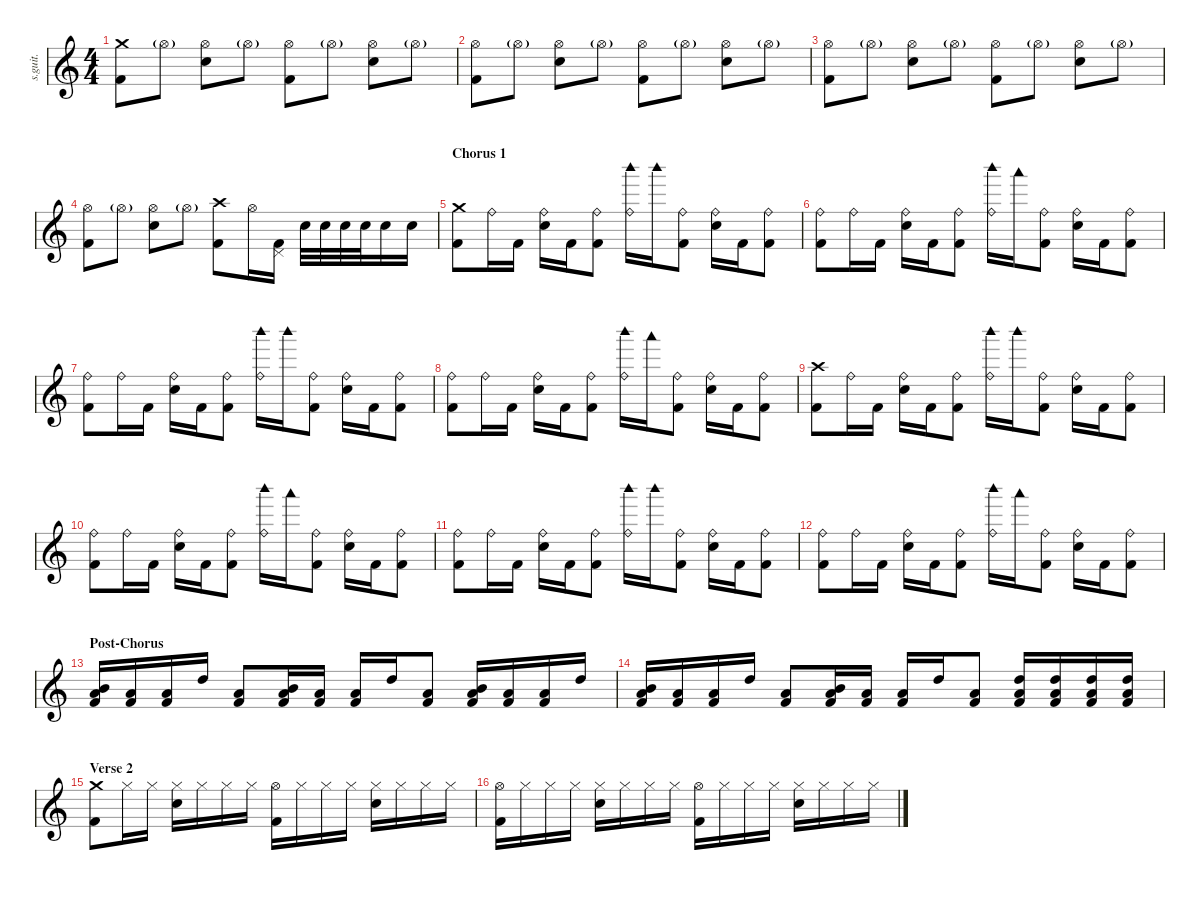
\defaultSystemsLayout 4
\hideDynamics
\bracketExtendMode nobrackets
\track ("Mike Wengren" "s.guit.") {instrument percussion}
\staff {score}
\articulation defaults
\ts (4 4)
\tempo (90 hide)
\clef g2
\ks c
("Kick (hit) 2" "Crash medium (hit)").8{lyrics (0 "") lyrics (1 "") lyrics (2 "") lyrics (3 "") lyrics (4 "") dy ff} "Hi-Hat (open)"{g}.8{lyrics (0 "") lyrics (1 "") lyrics (2 "") lyrics (3 "") lyrics (4 "")} ("Hi-Hat (open)" "Snare (hit) 2").8{lyrics (0 "") lyrics (1 "") lyrics (2 "") lyrics (3 "") lyrics (4 "")} "Hi-Hat (open)"{g}.8{lyrics (0 "") lyrics (1 "") lyrics (2 "") lyrics (3 "") lyrics (4 "")} ("Hi-Hat (open)" "Kick (hit) 2").8{lyrics (0 "") lyrics (1 "") lyrics (2 "") lyrics (3 "") lyrics (4 "")} "Hi-Hat (open)"{g}.8{lyrics (0 "") lyrics (1 "") lyrics (2 "") lyrics (3 "") lyrics (4 "")} ("Hi-Hat (open)" "Snare (hit) 2").8{lyrics (0 "") lyrics (1 "") lyrics (2 "") lyrics (3 "") lyrics (4 "")} "Hi-Hat (open)"{g}.8{lyrics (0 "") lyrics (1 "") lyrics (2 "") lyrics (3 "") lyrics (4 "")} |
("Hi-Hat (open)" "Kick (hit) 2").8{lyrics (0 "") lyrics (1 "") lyrics (2 "") lyrics (3 "") lyrics (4 "")} "Hi-Hat (open)"{g}.8{lyrics (0 "") lyrics (1 "") lyrics (2 "") lyrics (3 "") lyrics (4 "")} ("Hi-Hat (open)" "Snare (hit) 2").8{lyrics (0 "") lyrics (1 "") lyrics (2 "") lyrics (3 "") lyrics (4 "")} "Hi-Hat (open)"{g}.8{lyrics (0 "") lyrics (1 "") lyrics (2 "") lyrics (3 "") lyrics (4 "")} ("Hi-Hat (open)" "Kick (hit) 2").8{lyrics (0 "") lyrics (1 "") lyrics (2 "") lyrics (3 "") lyrics (4 "")} "Hi-Hat (open)"{g}.8{lyrics (0 "") lyrics (1 "") lyrics (2 "") lyrics (3 "") lyrics (4 "")} ("Hi-Hat (open)" "Snare (hit) 2").8{lyrics (0 "") lyrics (1 "") lyrics (2 "") lyrics (3 "") lyrics (4 "")} "Hi-Hat (open)"{g}.8{lyrics (0 "") lyrics (1 "") lyrics (2 "") lyrics (3 "") lyrics (4 "")} |
("Hi-Hat (open)" "Kick (hit) 2").8{lyrics (0 "") lyrics (1 "") lyrics (2 "") lyrics (3 "") lyrics (4 "")} "Hi-Hat (open)"{g}.8{lyrics (0 "") lyrics (1 "") lyrics (2 "") lyrics (3 "") lyrics (4 "")} ("Hi-Hat (open)" "Snare (hit) 2").8{lyrics (0 "") lyrics (1 "") lyrics (2 "") lyrics (3 "") lyrics (4 "")} "Hi-Hat (open)"{g}.8{lyrics (0 "") lyrics (1 "") lyrics (2 "") lyrics (3 "") lyrics (4 "")} ("Hi-Hat (open)" "Kick (hit) 2").8{lyrics (0 "") lyrics (1 "") lyrics (2 "") lyrics (3 "") lyrics (4 "")} "Hi-Hat (open)"{g}.8{lyrics (0 "") lyrics (1 "") lyrics (2 "") lyrics (3 "") lyrics (4 "")} ("Hi-Hat (open)" "Snare (hit) 2").8{lyrics (0 "") lyrics (1 "") lyrics (2 "") lyrics (3 "") lyrics (4 "")} "Hi-Hat (open)"{g}.8{lyrics (0 "") lyrics (1 "") lyrics (2 "") lyrics (3 "") lyrics (4 "")} |
("Hi-Hat (open)" "Kick (hit) 2").8{lyrics (0 "") lyrics (1 "") lyrics (2 "") lyrics (3 "") lyrics (4 "")} "Hi-Hat (open)"{g}.8{lyrics (0 "") lyrics (1 "") lyrics (2 "") lyrics (3 "") lyrics (4 "")} ("Hi-Hat (open)" "Snare (hit) 2").8{lyrics (0 "") lyrics (1 "") lyrics (2 "") lyrics (3 "") lyrics (4 "")} "Hi-Hat (open)"{g}.8{lyrics (0 "") lyrics (1 "") lyrics (2 "") lyrics (3 "") lyrics (4 "")} ("Kick (hit) 2" "Crash high (hit)").8{lyrics (0 "") lyrics (1 "") lyrics (2 "") lyrics (3 "") lyrics (4 "")} "Hi-Hat (open)".16{lyrics (0 "") lyrics (1 "") lyrics (2 "") lyrics (3 "") lyrics (4 "")} ("Kick (hit) 2" "Pedal Hi-Hat (hit)").16{lyrics (0 "") lyrics (1 "") lyrics (2 "") lyrics (3 "") lyrics (4 "")} "Snare (hit) 2".32{lyrics (0 "") lyrics (1 "") lyrics (2 "") lyrics (3 "") lyrics (4 "")} "Snare (hit) 2".32{lyrics (0 "") lyrics (1 "") lyrics (2 "") lyrics (3 "") lyrics (4 "")} "Snare (hit) 2".32{lyrics (0 "") lyrics (1 "") lyrics (2 "") lyrics (3 "") lyrics (4 "")} "Snare (hit) 2".32{lyrics (0 "") lyrics (1 "") lyrics (2 "") lyrics (3 "") lyrics (4 "")} "Snare (hit) 2".16{lyrics (0 "") lyrics (1 "") lyrics (2 "") lyrics (3 "") lyrics (4 "")} "Snare (hit) 2".16{lyrics (0 "") lyrics (1 "") lyrics (2 "") lyrics (3 "") lyrics (4 "")} |
\section ("" "Chorus 1")
("Kick (hit) 2" "Crash medium (hit)").8{lyrics (0 "") lyrics (1 "") lyrics (2 "") lyrics (3 "") lyrics (4 "")} "Ride (bell)".16{lyrics (0 "") lyrics (1 "") lyrics (2 "") lyrics (3 "") lyrics (4 "")} "Kick (hit) 2".16{lyrics (0 "") lyrics (1 "") lyrics (2 "") lyrics (3 "") lyrics (4 "")} ("Ride (bell)" "Snare (hit) 2").16{lyrics (0 "") lyrics (1 "") lyrics (2 "") lyrics (3 "") lyrics (4 "")} "Kick (hit) 2".16{lyrics (0 "") lyrics (1 "") lyrics (2 "") lyrics (3 "") lyrics (4 "")} ("Ride (bell)" "Kick (hit) 2").8{lyrics (0 "") lyrics (1 "") lyrics (2 "") lyrics (3 "") lyrics (4 "")} ("Woodblock high (hit)" "Ride (bell)").16{lyrics (0 "") lyrics (1 "") lyrics (2 "") lyrics (3 "") lyrics (4 "")} "Woodblock high (hit)".16{lyrics (0 "") lyrics (1 "") lyrics (2 "") lyrics (3 "") lyrics (4 "")} ("Ride (bell)" "Kick (hit) 2").8{lyrics (0 "") lyrics (1 "") lyrics (2 "") lyrics (3 "") lyrics (4 "")} ("Ride (bell)" "Snare (hit) 2").16{lyrics (0 "") lyrics (1 "") lyrics (2 "") lyrics (3 "") lyrics (4 "")} "Kick (hit) 2".16{lyrics (0 "") lyrics (1 "") lyrics (2 "") lyrics (3 "") lyrics (4 "")} ("Ride (bell)" "Kick (hit) 2").8{lyrics (0 "") lyrics (1 "") lyrics (2 "") lyrics (3 "") lyrics (4 "")} |
("Ride (bell)" "Kick (hit) 2").8{lyrics (0 "") lyrics (1 "") lyrics (2 "") lyrics (3 "") lyrics (4 "")} "Ride (bell)".16{lyrics (0 "") lyrics (1 "") lyrics (2 "") lyrics (3 "") lyrics (4 "")} "Kick (hit) 2".16{lyrics (0 "") lyrics (1 "") lyrics (2 "") lyrics (3 "") lyrics (4 "")} ("Ride (bell)" "Snare (hit) 2").16{lyrics (0 "") lyrics (1 "") lyrics (2 "") lyrics (3 "") lyrics (4 "")} "Kick (hit) 2".16{lyrics (0 "") lyrics (1 "") lyrics (2 "") lyrics (3 "") lyrics (4 "")} ("Ride (bell)" "Kick (hit) 2").8{lyrics (0 "") lyrics (1 "") lyrics (2 "") lyrics (3 "") lyrics (4 "")} ("Woodblock high (hit)" "Ride (bell)").16{lyrics (0 "") lyrics (1 "") lyrics (2 "") lyrics (3 "") lyrics (4 "")} "Woodblock low (hit)".16{lyrics (0 "") lyrics (1 "") lyrics (2 "") lyrics (3 "") lyrics (4 "")} ("Ride (bell)" "Kick (hit) 2").8{lyrics (0 "") lyrics (1 "") lyrics (2 "") lyrics (3 "") lyrics (4 "")} ("Ride (bell)" "Snare (hit) 2").16{lyrics (0 "") lyrics (1 "") lyrics (2 "") lyrics (3 "") lyrics (4 "")} "Kick (hit) 2".16{lyrics (0 "") lyrics (1 "") lyrics (2 "") lyrics (3 "") lyrics (4 "")} ("Ride (bell)" "Kick (hit) 2").8{lyrics (0 "") lyrics (1 "") lyrics (2 "") lyrics (3 "") lyrics (4 "")} |
("Ride (bell)" "Kick (hit) 2").8{lyrics (0 "") lyrics (1 "") lyrics (2 "") lyrics (3 "") lyrics (4 "")} "Ride (bell)".16{lyrics (0 "") lyrics (1 "") lyrics (2 "") lyrics (3 "") lyrics (4 "")} "Kick (hit) 2".16{lyrics (0 "") lyrics (1 "") lyrics (2 "") lyrics (3 "") lyrics (4 "")} ("Ride (bell)" "Snare (hit) 2").16{lyrics (0 "") lyrics (1 "") lyrics (2 "") lyrics (3 "") lyrics (4 "")} "Kick (hit) 2".16{lyrics (0 "") lyrics (1 "") lyrics (2 "") lyrics (3 "") lyrics (4 "")} ("Ride (bell)" "Kick (hit) 2").8{lyrics (0 "") lyrics (1 "") lyrics (2 "") lyrics (3 "") lyrics (4 "")} ("Woodblock high (hit)" "Ride (bell)").16{lyrics (0 "") lyrics (1 "") lyrics (2 "") lyrics (3 "") lyrics (4 "")} "Woodblock high (hit)".16{lyrics (0 "") lyrics (1 "") lyrics (2 "") lyrics (3 "") lyrics (4 "")} ("Ride (bell)" "Kick (hit) 2").8{lyrics (0 "") lyrics (1 "") lyrics (2 "") lyrics (3 "") lyrics (4 "")} ("Ride (bell)" "Snare (hit) 2").16{lyrics (0 "") lyrics (1 "") lyrics (2 "") lyrics (3 "") lyrics (4 "")} "Kick (hit) 2".16{lyrics (0 "") lyrics (1 "") lyrics (2 "") lyrics (3 "") lyrics (4 "")} ("Ride (bell)" "Kick (hit) 2").8{lyrics (0 "") lyrics (1 "") lyrics (2 "") lyrics (3 "") lyrics (4 "")} |
("Ride (bell)" "Kick (hit) 2").8{lyrics (0 "") lyrics (1 "") lyrics (2 "") lyrics (3 "") lyrics (4 "")} "Ride (bell)".16{lyrics (0 "") lyrics (1 "") lyrics (2 "") lyrics (3 "") lyrics (4 "")} "Kick (hit) 2".16{lyrics (0 "") lyrics (1 "") lyrics (2 "") lyrics (3 "") lyrics (4 "")} ("Ride (bell)" "Snare (hit) 2").16{lyrics (0 "") lyrics (1 "") lyrics (2 "") lyrics (3 "") lyrics (4 "")} "Kick (hit) 2".16{lyrics (0 "") lyrics (1 "") lyrics (2 "") lyrics (3 "") lyrics (4 "")} ("Ride (bell)" "Kick (hit) 2").8{lyrics (0 "") lyrics (1 "") lyrics (2 "") lyrics (3 "") lyrics (4 "")} ("Woodblock high (hit)" "Ride (bell)").16{lyrics (0 "") lyrics (1 "") lyrics (2 "") lyrics (3 "") lyrics (4 "")} "Woodblock low (hit)".16{lyrics (0 "") lyrics (1 "") lyrics (2 "") lyrics (3 "") lyrics (4 "")} ("Ride (bell)" "Kick (hit) 2").8{lyrics (0 "") lyrics (1 "") lyrics (2 "") lyrics (3 "") lyrics (4 "")} ("Ride (bell)" "Snare (hit) 2").16{lyrics (0 "") lyrics (1 "") lyrics (2 "") lyrics (3 "") lyrics (4 "")} "Kick (hit) 2".16{lyrics (0 "") lyrics (1 "") lyrics (2 "") lyrics (3 "") lyrics (4 "")} ("Ride (bell)" "Kick (hit) 2").8{lyrics (0 "") lyrics (1 "") lyrics (2 "") lyrics (3 "") lyrics (4 "")} |
("Crash high (hit)" "Kick (hit) 2").8{lyrics (0 "") lyrics (1 "") lyrics (2 "") lyrics (3 "") lyrics (4 "")} "Ride (bell)".16{lyrics (0 "") lyrics (1 "") lyrics (2 "") lyrics (3 "") lyrics (4 "")} "Kick (hit) 2".16{lyrics (0 "") lyrics (1 "") lyrics (2 "") lyrics (3 "") lyrics (4 "")} ("Ride (bell)" "Snare (hit) 2").16{lyrics (0 "") lyrics (1 "") lyrics (2 "") lyrics (3 "") lyrics (4 "")} "Kick (hit) 2".16{lyrics (0 "") lyrics (1 "") lyrics (2 "") lyrics (3 "") lyrics (4 "")} ("Ride (bell)" "Kick (hit) 2").8{lyrics (0 "") lyrics (1 "") lyrics (2 "") lyrics (3 "") lyrics (4 "")} ("Woodblock high (hit)" "Ride (bell)").16{lyrics (0 "") lyrics (1 "") lyrics (2 "") lyrics (3 "") lyrics (4 "")} "Woodblock high (hit)".16{lyrics (0 "") lyrics (1 "") lyrics (2 "") lyrics (3 "") lyrics (4 "")} ("Ride (bell)" "Kick (hit) 2").8{lyrics (0 "") lyrics (1 "") lyrics (2 "") lyrics (3 "") lyrics (4 "")} ("Ride (bell)" "Snare (hit) 2").16{lyrics (0 "") lyrics (1 "") lyrics (2 "") lyrics (3 "") lyrics (4 "")} "Kick (hit) 2".16{lyrics (0 "") lyrics (1 "") lyrics (2 "") lyrics (3 "") lyrics (4 "")} ("Ride (bell)" "Kick (hit) 2").8{lyrics (0 "") lyrics (1 "") lyrics (2 "") lyrics (3 "") lyrics (4 "")} |
("Ride (bell)" "Kick (hit) 2").8{lyrics (0 "") lyrics (1 "") lyrics (2 "") lyrics (3 "") lyrics (4 "")} "Ride (bell)".16{lyrics (0 "") lyrics (1 "") lyrics (2 "") lyrics (3 "") lyrics (4 "")} "Kick (hit) 2".16{lyrics (0 "") lyrics (1 "") lyrics (2 "") lyrics (3 "") lyrics (4 "")} ("Ride (bell)" "Snare (hit) 2").16{lyrics (0 "") lyrics (1 "") lyrics (2 "") lyrics (3 "") lyrics (4 "")} "Kick (hit) 2".16{lyrics (0 "") lyrics (1 "") lyrics (2 "") lyrics (3 "") lyrics (4 "")} ("Ride (bell)" "Kick (hit) 2").8{lyrics (0 "") lyrics (1 "") lyrics (2 "") lyrics (3 "") lyrics (4 "")} ("Woodblock high (hit)" "Ride (bell)").16{lyrics (0 "") lyrics (1 "") lyrics (2 "") lyrics (3 "") lyrics (4 "")} "Woodblock low (hit)".16{lyrics (0 "") lyrics (1 "") lyrics (2 "") lyrics (3 "") lyrics (4 "")} ("Ride (bell)" "Kick (hit) 2").8{lyrics (0 "") lyrics (1 "") lyrics (2 "") lyrics (3 "") lyrics (4 "")} ("Ride (bell)" "Snare (hit) 2").16{lyrics (0 "") lyrics (1 "") lyrics (2 "") lyrics (3 "") lyrics (4 "")} "Kick (hit) 2".16{lyrics (0 "") lyrics (1 "") lyrics (2 "") lyrics (3 "") lyrics (4 "")} ("Ride (bell)" "Kick (hit) 2").8{lyrics (0 "") lyrics (1 "") lyrics (2 "") lyrics (3 "") lyrics (4 "")} |
("Ride (bell)" "Kick (hit) 2").8{lyrics (0 "") lyrics (1 "") lyrics (2 "") lyrics (3 "") lyrics (4 "")} "Ride (bell)".16{lyrics (0 "") lyrics (1 "") lyrics (2 "") lyrics (3 "") lyrics (4 "")} "Kick (hit) 2".16{lyrics (0 "") lyrics (1 "") lyrics (2 "") lyrics (3 "") lyrics (4 "")} ("Ride (bell)" "Snare (hit) 2").16{lyrics (0 "") lyrics (1 "") lyrics (2 "") lyrics (3 "") lyrics (4 "")} "Kick (hit) 2".16{lyrics (0 "") lyrics (1 "") lyrics (2 "") lyrics (3 "") lyrics (4 "")} ("Ride (bell)" "Kick (hit) 2").8{lyrics (0 "") lyrics (1 "") lyrics (2 "") lyrics (3 "") lyrics (4 "")} ("Woodblock high (hit)" "Ride (bell)").16{lyrics (0 "") lyrics (1 "") lyrics (2 "") lyrics (3 "") lyrics (4 "")} "Woodblock high (hit)".16{lyrics (0 "") lyrics (1 "") lyrics (2 "") lyrics (3 "") lyrics (4 "")} ("Ride (bell)" "Kick (hit) 2").8{lyrics (0 "") lyrics (1 "") lyrics (2 "") lyrics (3 "") lyrics (4 "")} ("Ride (bell)" "Snare (hit) 2").16{lyrics (0 "") lyrics (1 "") lyrics (2 "") lyrics (3 "") lyrics (4 "")} "Kick (hit) 2".16{lyrics (0 "") lyrics (1 "") lyrics (2 "") lyrics (3 "") lyrics (4 "")} ("Ride (bell)" "Kick (hit) 2").8{lyrics (0 "") lyrics (1 "") lyrics (2 "") lyrics (3 "") lyrics (4 "")} |
("Ride (bell)" "Kick (hit) 2").8{lyrics (0 "") lyrics (1 "") lyrics (2 "") lyrics (3 "") lyrics (4 "")} "Ride (bell)".16{lyrics (0 "") lyrics (1 "") lyrics (2 "") lyrics (3 "") lyrics (4 "")} "Kick (hit) 2".16{lyrics (0 "") lyrics (1 "") lyrics (2 "") lyrics (3 "") lyrics (4 "")} ("Ride (bell)" "Snare (hit) 2").16{lyrics (0 "") lyrics (1 "") lyrics (2 "") lyrics (3 "") lyrics (4 "")} "Kick (hit) 2".16{lyrics (0 "") lyrics (1 "") lyrics (2 "") lyrics (3 "") lyrics (4 "")} ("Ride (bell)" "Kick (hit) 2").8{lyrics (0 "") lyrics (1 "") lyrics (2 "") lyrics (3 "") lyrics (4 "")} ("Woodblock high (hit)" "Ride (bell)").16{lyrics (0 "") lyrics (1 "") lyrics (2 "") lyrics (3 "") lyrics (4 "")} "Woodblock low (hit)".16{lyrics (0 "") lyrics (1 "") lyrics (2 "") lyrics (3 "") lyrics (4 "")} ("Ride (bell)" "Kick (hit) 2").8{lyrics (0 "") lyrics (1 "") lyrics (2 "") lyrics (3 "") lyrics (4 "")} ("Ride (bell)" "Snare (hit) 2").16{lyrics (0 "") lyrics (1 "") lyrics (2 "") lyrics (3 "") lyrics (4 "")} "Kick (hit) 2".16{lyrics (0 "") lyrics (1 "") lyrics (2 "") lyrics (3 "") lyrics (4 "")} ("Ride (bell)" "Kick (hit) 2").8{lyrics (0 "") lyrics (1 "") lyrics (2 "") lyrics (3 "") lyrics (4 "")} |
\section ("" "Post-Chorus")
("Kick (hit) 2" "Mid Tom (hit)" "Low Floor Tom (hit)").16{lyrics (0 "") lyrics (1 "") lyrics (2 "") lyrics (3 "") lyrics (4 "")} ("Kick (hit) 2" "Low Floor Tom (hit)").16{lyrics (0 "") lyrics (1 "") lyrics (2 "") lyrics (3 "") lyrics (4 "")} ("Kick (hit) 2" "Low Floor Tom (hit)").16{lyrics (0 "") lyrics (1 "") lyrics (2 "") lyrics (3 "") lyrics (4 "")} "High Tom (hit)".16{lyrics (0 "") lyrics (1 "") lyrics (2 "") lyrics (3 "") lyrics (4 "")} ("Kick (hit) 2" "Low Floor Tom (hit)").8{lyrics (0 "") lyrics (1 "") lyrics (2 "") lyrics (3 "") lyrics (4 "")} ("Kick (hit) 2" "Mid Tom (hit)" "Low Floor Tom (hit)").16{lyrics (0 "") lyrics (1 "") lyrics (2 "") lyrics (3 "") lyrics (4 "")} ("Kick (hit) 2" "Low Floor Tom (hit)").16{lyrics (0 "") lyrics (1 "") lyrics (2 "") lyrics (3 "") lyrics (4 "")} ("Kick (hit) 2" "Low Floor Tom (hit)").16{lyrics (0 "") lyrics (1 "") lyrics (2 "") lyrics (3 "") lyrics (4 "")} "High Tom (hit)".16{lyrics (0 "") lyrics (1 "") lyrics (2 "") lyrics (3 "") lyrics (4 "")} ("Kick (hit) 2" "Low Floor Tom (hit)").8{lyrics (0 "") lyrics (1 "") lyrics (2 "") lyrics (3 "") lyrics (4 "")} ("Kick (hit) 2" "Mid Tom (hit)" "Low Floor Tom (hit)").16{lyrics (0 "") lyrics (1 "") lyrics (2 "") lyrics (3 "") lyrics (4 "")} ("Kick (hit) 2" "Low Floor Tom (hit)").16{lyrics (0 "") lyrics (1 "") lyrics (2 "") lyrics (3 "") lyrics (4 "")} ("Kick (hit) 2" "Low Floor Tom (hit)").16{lyrics (0 "") lyrics (1 "") lyrics (2 "") lyrics (3 "") lyrics (4 "")} "High Tom (hit)".16{lyrics (0 "") lyrics (1 "") lyrics (2 "") lyrics (3 "") lyrics (4 "")} |
("Kick (hit) 2" "Mid Tom (hit)" "Low Floor Tom (hit)").16{lyrics (0 "") lyrics (1 "") lyrics (2 "") lyrics (3 "") lyrics (4 "")} ("Kick (hit) 2" "Low Floor Tom (hit)").16{lyrics (0 "") lyrics (1 "") lyrics (2 "") lyrics (3 "") lyrics (4 "")} ("Kick (hit) 2" "Low Floor Tom (hit)").16{lyrics (0 "") lyrics (1 "") lyrics (2 "") lyrics (3 "") lyrics (4 "")} "High Tom (hit)".16{lyrics (0 "") lyrics (1 "") lyrics (2 "") lyrics (3 "") lyrics (4 "")} ("Kick (hit) 2" "Low Floor Tom (hit)").8{lyrics (0 "") lyrics (1 "") lyrics (2 "") lyrics (3 "") lyrics (4 "")} ("Kick (hit) 2" "Mid Tom (hit)" "Low Floor Tom (hit)").16{lyrics (0 "") lyrics (1 "") lyrics (2 "") lyrics (3 "") lyrics (4 "")} ("Kick (hit) 2" "Low Floor Tom (hit)").16{lyrics (0 "") lyrics (1 "") lyrics (2 "") lyrics (3 "") lyrics (4 "")} ("Kick (hit) 2" "Low Floor Tom (hit)").16{lyrics (0 "") lyrics (1 "") lyrics (2 "") lyrics (3 "") lyrics (4 "")} "High Tom (hit)".16{lyrics (0 "") lyrics (1 "") lyrics (2 "") lyrics (3 "") lyrics (4 "")} ("Kick (hit) 2" "Low Floor Tom (hit)").8{lyrics (0 "") lyrics (1 "") lyrics (2 "") lyrics (3 "") lyrics (4 "")} ("High Tom (hit)" "Kick (hit) 2" "Low Floor Tom (hit)").16{lyrics (0 "") lyrics (1 "") lyrics (2 "") lyrics (3 "") lyrics (4 "")} ("High Tom (hit)" "Kick (hit) 2" "Low Floor Tom (hit)").16{lyrics (0 "") lyrics (1 "") lyrics (2 "") lyrics (3 "") lyrics (4 "")} ("High Tom (hit)" "Kick (hit) 2" "Low Floor Tom (hit)").16{lyrics (0 "") lyrics (1 "") lyrics (2 "") lyrics (3 "") lyrics (4 "")} ("High Tom (hit)" "Kick (hit) 2" "Low Floor Tom (hit)").16{lyrics (0 "") lyrics (1 "") lyrics (2 "") lyrics (3 "") lyrics (4 "")} |
\section ("" "Verse 2")
("Kick (hit) 2" "Crash medium (hit)").8{lyrics (0 "") lyrics (1 "") lyrics (2 "") lyrics (3 "") lyrics (4 "")} "Hi-Hat (closed)".16{lyrics (0 "") lyrics (1 "") lyrics (2 "") lyrics (3 "") lyrics (4 "")} "Hi-Hat (closed)".16{lyrics (0 "") lyrics (1 "") lyrics (2 "") lyrics (3 "") lyrics (4 "")} ("Hi-Hat (closed)" "Snare (hit) 2").16{lyrics (0 "") lyrics (1 "") lyrics (2 "") lyrics (3 "") lyrics (4 "")} "Hi-Hat (closed)".16{lyrics (0 "") lyrics (1 "") lyrics (2 "") lyrics (3 "") lyrics (4 "")} "Hi-Hat (closed)".16{lyrics (0 "") lyrics (1 "") lyrics (2 "") lyrics (3 "") lyrics (4 "")} "Hi-Hat (closed)".16{lyrics (0 "") lyrics (1 "") lyrics (2 "") lyrics (3 "") lyrics (4 "")} ("Hi-Hat (open)" "Kick (hit) 2").16{lyrics (0 "") lyrics (1 "") lyrics (2 "") lyrics (3 "") lyrics (4 "")} "Hi-Hat (closed)".16{lyrics (0 "") lyrics (1 "") lyrics (2 "") lyrics (3 "") lyrics (4 "")} "Hi-Hat (closed)".16{lyrics (0 "") lyrics (1 "") lyrics (2 "") lyrics (3 "") lyrics (4 "")} "Hi-Hat (closed)".16{lyrics (0 "") lyrics (1 "") lyrics (2 "") lyrics (3 "") lyrics (4 "")} ("Hi-Hat (closed)" "Snare (hit) 2").16{lyrics (0 "") lyrics (1 "") lyrics (2 "") lyrics (3 "") lyrics (4 "")} "Hi-Hat (closed)".16{lyrics (0 "") lyrics (1 "") lyrics (2 "") lyrics (3 "") lyrics (4 "")} "Hi-Hat (closed)".16{lyrics (0 "") lyrics (1 "") lyrics (2 "") lyrics (3 "") lyrics (4 "")} "Hi-Hat (closed)".16{lyrics (0 "") lyrics (1 "") lyrics (2 "") lyrics (3 "") lyrics (4 "")} |
("Hi-Hat (open)" "Kick (hit) 2").16{lyrics (0 "") lyrics (1 "") lyrics (2 "") lyrics (3 "") lyrics (4 "")} "Hi-Hat (closed)".16{lyrics (0 "") lyrics (1 "") lyrics (2 "") lyrics (3 "") lyrics (4 "")} "Hi-Hat (closed)".16{lyrics (0 "") lyrics (1 "") lyrics (2 "") lyrics (3 "") lyrics (4 "")} "Hi-Hat (closed)".16{lyrics (0 "") lyrics (1 "") lyrics (2 "") lyrics (3 "") lyrics (4 "")} ("Hi-Hat (closed)" "Snare (hit) 2").16{lyrics (0 "") lyrics (1 "") lyrics (2 "") lyrics (3 "") lyrics (4 "")} "Hi-Hat (closed)".16{lyrics (0 "") lyrics (1 "") lyrics (2 "") lyrics (3 "") lyrics (4 "")} "Hi-Hat (closed)".16{lyrics (0 "") lyrics (1 "") lyrics (2 "") lyrics (3 "") lyrics (4 "")} "Hi-Hat (closed)".16{lyrics (0 "") lyrics (1 "") lyrics (2 "") lyrics (3 "") lyrics (4 "")} ("Hi-Hat (open)" "Kick (hit) 2").16{lyrics (0 "") lyrics (1 "") lyrics (2 "") lyrics (3 "") lyrics (4 "")} "Hi-Hat (closed)".16{lyrics (0 "") lyrics (1 "") lyrics (2 "") lyrics (3 "") lyrics (4 "")} "Hi-Hat (closed)".16{lyrics (0 "") lyrics (1 "") lyrics (2 "") lyrics (3 "") lyrics (4 "")} "Hi-Hat (closed)".16{lyrics (0 "") lyrics (1 "") lyrics (2 "") lyrics (3 "") lyrics (4 "")} ("Hi-Hat (closed)" "Snare (hit) 2").16{lyrics (0 "") lyrics (1 "") lyrics (2 "") lyrics (3 "") lyrics (4 "")} "Hi-Hat (closed)".16{lyrics (0 "") lyrics (1 "") lyrics (2 "") lyrics (3 "") lyrics (4 "")} "Hi-Hat (closed)".16{lyrics (0 "") lyrics (1 "") lyrics (2 "") lyrics (3 "") lyrics (4 "")} "Hi-Hat (closed)".16{lyrics (0 "") lyrics (1 "") lyrics (2 "") lyrics (3 "") lyrics (4 "")}
